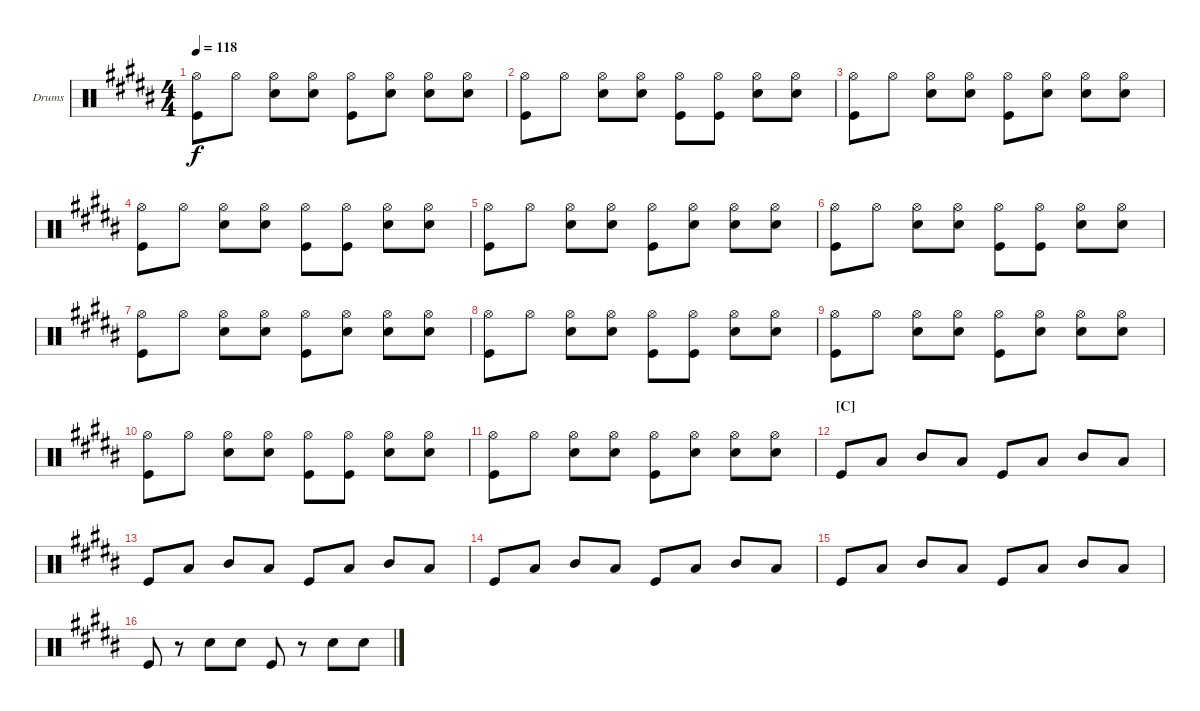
\bracketExtendMode groupsimilarinstruments
\firstSystemTrackNameOrientation horizontal
\otherSystemsTrackNameOrientation horizontal
\track ("Fabrizio Moretti" "Drums") {instrument percussion}
\staff {score}
\articulation defaults
\ts (4 4)
\tempo 118
\clef neutral
\ks b
("Hi-Hat (open)" "Kick (hit)").8{dy f} "Hi-Hat (open)".8 ("Hi-Hat (open)" "Snare (hit) 2").8 ("Hi-Hat (open)" "Snare (hit) 2").8 ("Kick (hit)" "Hi-Hat (open)").8 ("Hi-Hat (open)" "Snare (hit) 2").8 ("Hi-Hat (open)" "Snare (hit) 2").8 ("Hi-Hat (open)" "Snare (hit) 2").8 |
("Hi-Hat (open)" "Kick (hit)").8 "Hi-Hat (open)".8 ("Hi-Hat (open)" "Snare (hit) 2").8 ("Hi-Hat (open)" "Snare (hit) 2").8 ("Hi-Hat (open)" "Kick (hit)").8 ("Hi-Hat (open)" "Kick (hit)").8 ("Hi-Hat (open)" "Snare (hit) 2").8 ("Hi-Hat (open)" "Snare (hit) 2").8 |
("Hi-Hat (open)" "Kick (hit)").8 "Hi-Hat (open)".8 ("Hi-Hat (open)" "Snare (hit) 2").8 ("Hi-Hat (open)" "Snare (hit) 2").8 ("Kick (hit)" "Hi-Hat (open)").8 ("Hi-Hat (open)" "Snare (hit) 2").8 ("Hi-Hat (open)" "Snare (hit) 2").8 ("Hi-Hat (open)" "Snare (hit) 2").8 |
("Hi-Hat (open)" "Kick (hit)").8 "Hi-Hat (open)".8 ("Hi-Hat (open)" "Snare (hit) 2").8 ("Hi-Hat (open)" "Snare (hit) 2").8 ("Hi-Hat (open)" "Kick (hit)").8 ("Hi-Hat (open)" "Kick (hit)").8 ("Hi-Hat (open)" "Snare (hit) 2").8 ("Hi-Hat (open)" "Snare (hit) 2").8 |
("Hi-Hat (open)" "Kick (hit)").8 "Hi-Hat (open)".8 ("Hi-Hat (open)" "Snare (hit) 2").8 ("Hi-Hat (open)" "Snare (hit) 2").8 ("Kick (hit)" "Hi-Hat (open)").8 ("Hi-Hat (open)" "Snare (hit) 2").8 ("Hi-Hat (open)" "Snare (hit) 2").8 ("Hi-Hat (open)" "Snare (hit) 2").8 |
("Hi-Hat (open)" "Kick (hit)").8 "Hi-Hat (open)".8 ("Hi-Hat (open)" "Snare (hit) 2").8 ("Hi-Hat (open)" "Snare (hit) 2").8 ("Hi-Hat (open)" "Kick (hit)").8 ("Hi-Hat (open)" "Kick (hit)").8 ("Hi-Hat (open)" "Snare (hit) 2").8 ("Hi-Hat (open)" "Snare (hit) 2").8 |
("Hi-Hat (open)" "Kick (hit)").8 "Hi-Hat (open)".8 ("Hi-Hat (open)" "Snare (hit) 2").8 ("Hi-Hat (open)" "Snare (hit) 2").8 ("Kick (hit)" "Hi-Hat (open)").8 ("Hi-Hat (open)" "Snare (hit) 2").8 ("Hi-Hat (open)" "Snare (hit) 2").8 ("Hi-Hat (open)" "Snare (hit) 2").8 |
("Hi-Hat (open)" "Kick (hit)").8 "Hi-Hat (open)".8 ("Hi-Hat (open)" "Snare (hit) 2").8 ("Hi-Hat (open)" "Snare (hit) 2").8 ("Hi-Hat (open)" "Kick (hit)").8 ("Hi-Hat (open)" "Kick (hit)").8 ("Hi-Hat (open)" "Snare (hit) 2").8 ("Hi-Hat (open)" "Snare (hit) 2").8 |
("Hi-Hat (open)" "Kick (hit)").8 "Hi-Hat (open)".8 ("Hi-Hat (open)" "Snare (hit) 2").8 ("Hi-Hat (open)" "Snare (hit) 2").8 ("Kick (hit)" "Hi-Hat (open)").8 ("Hi-Hat (open)" "Snare (hit) 2").8 ("Hi-Hat (open)" "Snare (hit) 2").8 ("Hi-Hat (open)" "Snare (hit) 2").8 |
("Hi-Hat (open)" "Kick (hit)").8 "Hi-Hat (open)".8 ("Hi-Hat (open)" "Snare (hit) 2").8 ("Hi-Hat (open)" "Snare (hit) 2").8 ("Hi-Hat (open)" "Kick (hit)").8 ("Hi-Hat (open)" "Kick (hit)").8 ("Hi-Hat (open)" "Snare (hit) 2").8 ("Hi-Hat (open)" "Snare (hit) 2").8 |
("Hi-Hat (open)" "Kick (hit)").8 "Hi-Hat (open)".8 ("Hi-Hat (open)" "Snare (hit) 2").8 ("Hi-Hat (open)" "Snare (hit) 2").8 ("Kick (hit)" "Hi-Hat (open)").8 ("Hi-Hat (open)" "Snare (hit) 2").8 ("Hi-Hat (open)" "Snare (hit) 2").8 ("Hi-Hat (open)" "Snare (hit) 2").8 |
\section ("C" "")
"Kick (hit)".8 "Low Tom (hit)".8 "Mid Tom (hit)".8 "Low Tom (hit)".8 "Kick (hit)".8 "Low Tom (hit)".8 "Mid Tom (hit)".8 "Low Tom (hit)".8 |
"Kick (hit)".8 "Low Tom (hit)".8 "Mid Tom (hit)".8 "Low Tom (hit)".8 "Kick (hit)".8 "Low Tom (hit)".8 "Mid Tom (hit)".8 "Low Tom (hit)".8 |
"Kick (hit)".8 "Low Tom (hit)".8 "Mid Tom (hit)".8 "Low Tom (hit)".8 "Kick (hit)".8 "Low Tom (hit)".8 "Mid Tom (hit)".8 "Low Tom (hit)".8 |
"Kick (hit)".8 "Low Tom (hit)".8 "Mid Tom (hit)".8 "Low Tom (hit)".8 "Kick (hit)".8 "Low Tom (hit)".8 "Mid Tom (hit)".8 "Low Tom (hit)".8 |
"Kick (hit)".8 r.8 "Snare (hit) 2".8 "Snare (hit) 2".8 "Kick (hit)".8 r.8 "Snare (hit) 2".8 "Snare (hit) 2".8
